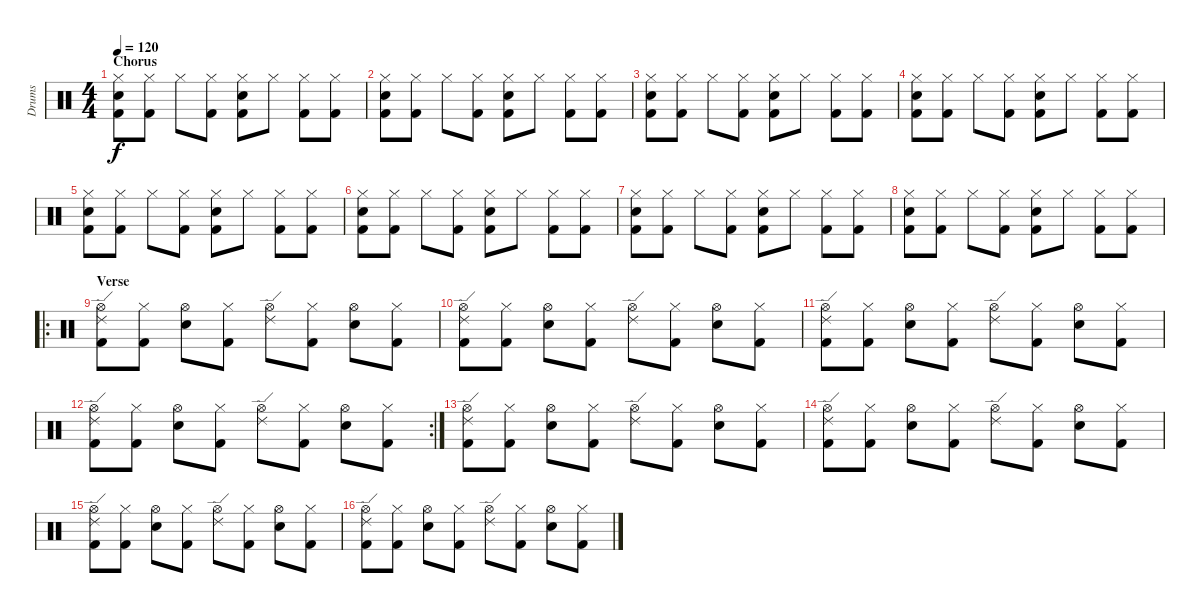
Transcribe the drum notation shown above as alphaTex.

\track ("Drums" "Drums") {instrument percussion}
\staff {score}
\articulation defaults
\ts (4 4)
\section ("" "Chorus")
\tempo 120
\clef neutral
\ks c
("Hi-Hat (closed)" "Snare (hit) 2" "Kick (hit) 2").8{dy f} ("Hi-Hat (closed)" "Kick (hit) 2").8 "Hi-Hat (closed)".8 ("Hi-Hat (closed)" "Kick (hit) 2").8 ("Hi-Hat (closed)" "Snare (hit) 2" "Kick (hit) 2").8 "Hi-Hat (closed)".8 ("Hi-Hat (closed)" "Kick (hit) 2").8 ("Hi-Hat (closed)" "Kick (hit) 2").8 |
("Hi-Hat (closed)" "Snare (hit) 2" "Kick (hit) 2").8 ("Hi-Hat (closed)" "Kick (hit) 2").8 "Hi-Hat (closed)".8 ("Hi-Hat (closed)" "Kick (hit) 2").8 ("Hi-Hat (closed)" "Snare (hit) 2" "Kick (hit) 2").8 "Hi-Hat (closed)".8 ("Hi-Hat (closed)" "Kick (hit) 2").8 ("Hi-Hat (closed)" "Kick (hit) 2").8 |
("Hi-Hat (closed)" "Snare (hit) 2" "Kick (hit) 2").8 ("Hi-Hat (closed)" "Kick (hit) 2").8 "Hi-Hat (closed)".8 ("Hi-Hat (closed)" "Kick (hit) 2").8 ("Hi-Hat (closed)" "Snare (hit) 2" "Kick (hit) 2").8 "Hi-Hat (closed)".8 ("Hi-Hat (closed)" "Kick (hit) 2").8 ("Hi-Hat (closed)" "Kick (hit) 2").8 |
("Hi-Hat (closed)" "Snare (hit) 2" "Kick (hit) 2").8 ("Hi-Hat (closed)" "Kick (hit) 2").8 "Hi-Hat (closed)".8 ("Hi-Hat (closed)" "Kick (hit) 2").8 ("Hi-Hat (closed)" "Snare (hit) 2" "Kick (hit) 2").8 "Hi-Hat (closed)".8 ("Hi-Hat (closed)" "Kick (hit) 2").8 ("Hi-Hat (closed)" "Kick (hit) 2").8 |
("Hi-Hat (closed)" "Snare (hit) 2" "Kick (hit) 2").8 ("Hi-Hat (closed)" "Kick (hit) 2").8 "Hi-Hat (closed)".8 ("Hi-Hat (closed)" "Kick (hit) 2").8 ("Hi-Hat (closed)" "Snare (hit) 2" "Kick (hit) 2").8 "Hi-Hat (closed)".8 ("Hi-Hat (closed)" "Kick (hit) 2").8 ("Hi-Hat (closed)" "Kick (hit) 2").8 |
("Hi-Hat (closed)" "Snare (hit) 2" "Kick (hit) 2").8 ("Hi-Hat (closed)" "Kick (hit) 2").8 "Hi-Hat (closed)".8 ("Hi-Hat (closed)" "Kick (hit) 2").8 ("Hi-Hat (closed)" "Snare (hit) 2" "Kick (hit) 2").8 "Hi-Hat (closed)".8 ("Hi-Hat (closed)" "Kick (hit) 2").8 ("Hi-Hat (closed)" "Kick (hit) 2").8 |
("Hi-Hat (closed)" "Snare (hit) 2" "Kick (hit) 2").8 ("Hi-Hat (closed)" "Kick (hit) 2").8 "Hi-Hat (closed)".8 ("Hi-Hat (closed)" "Kick (hit) 2").8 ("Hi-Hat (closed)" "Snare (hit) 2" "Kick (hit) 2").8 "Hi-Hat (closed)".8 ("Hi-Hat (closed)" "Kick (hit) 2").8 ("Hi-Hat (closed)" "Kick (hit) 2").8 |
("Hi-Hat (closed)" "Snare (hit) 2" "Kick (hit) 2").8 ("Hi-Hat (closed)" "Kick (hit) 2").8 "Hi-Hat (closed)".8 ("Hi-Hat (closed)" "Kick (hit) 2").8 ("Hi-Hat (closed)" "Snare (hit) 2" "Kick (hit) 2").8 "Hi-Hat (closed)".8 ("Hi-Hat (closed)" "Kick (hit) 2").8 ("Hi-Hat (closed)" "Kick (hit) 2").8 |
\ro
\section ("" "Verse")
("Hi-Hat (open)" "Ride (edge) 2" "Kick (hit) 2").8 ("Hi-Hat (closed)" "Kick (hit) 2").8 ("Hi-Hat (open)" "Snare (hit) 2").8 ("Hi-Hat (closed)" "Kick (hit) 2").8 ("Hi-Hat (open)" "Ride (edge) 2").8 ("Hi-Hat (closed)" "Kick (hit) 2").8 ("Hi-Hat (open)" "Snare (hit) 2").8 ("Hi-Hat (closed)" "Kick (hit) 2").8 |
("Hi-Hat (open)" "Ride (edge) 2" "Kick (hit) 2").8 ("Hi-Hat (closed)" "Kick (hit) 2").8 ("Hi-Hat (open)" "Snare (hit) 2").8 ("Hi-Hat (closed)" "Kick (hit) 2").8 ("Hi-Hat (open)" "Ride (edge) 2").8 ("Hi-Hat (closed)" "Kick (hit) 2").8 ("Hi-Hat (open)" "Snare (hit) 2").8 ("Hi-Hat (closed)" "Kick (hit) 2").8 |
("Hi-Hat (open)" "Ride (edge) 2" "Kick (hit) 2").8 ("Hi-Hat (closed)" "Kick (hit) 2").8 ("Hi-Hat (open)" "Snare (hit) 2").8 ("Hi-Hat (closed)" "Kick (hit) 2").8 ("Hi-Hat (open)" "Ride (edge) 2").8 ("Hi-Hat (closed)" "Kick (hit) 2").8 ("Hi-Hat (open)" "Snare (hit) 2").8 ("Hi-Hat (closed)" "Kick (hit) 2").8 |
\rc 2
("Hi-Hat (open)" "Ride (edge) 2" "Kick (hit) 2").8 ("Hi-Hat (closed)" "Kick (hit) 2").8 ("Hi-Hat (open)" "Snare (hit) 2").8 ("Hi-Hat (closed)" "Kick (hit) 2").8 ("Hi-Hat (open)" "Ride (edge) 2").8 ("Hi-Hat (closed)" "Kick (hit) 2").8 ("Hi-Hat (open)" "Snare (hit) 2").8 ("Hi-Hat (closed)" "Kick (hit) 2").8 |
("Hi-Hat (open)" "Ride (edge) 2" "Kick (hit) 2").8 ("Hi-Hat (closed)" "Kick (hit) 2").8 ("Hi-Hat (open)" "Snare (hit) 2").8 ("Hi-Hat (closed)" "Kick (hit) 2").8 ("Hi-Hat (open)" "Ride (edge) 2").8 ("Hi-Hat (closed)" "Kick (hit) 2").8 ("Hi-Hat (open)" "Snare (hit) 2").8 ("Hi-Hat (closed)" "Kick (hit) 2").8 |
("Hi-Hat (open)" "Ride (edge) 2" "Kick (hit) 2").8 ("Hi-Hat (closed)" "Kick (hit) 2").8 ("Hi-Hat (open)" "Snare (hit) 2").8 ("Hi-Hat (closed)" "Kick (hit) 2").8 ("Hi-Hat (open)" "Ride (edge) 2").8 ("Hi-Hat (closed)" "Kick (hit) 2").8 ("Hi-Hat (open)" "Snare (hit) 2").8 ("Hi-Hat (closed)" "Kick (hit) 2").8 |
("Hi-Hat (open)" "Ride (edge) 2" "Kick (hit) 2").8 ("Hi-Hat (closed)" "Kick (hit) 2").8 ("Hi-Hat (open)" "Snare (hit) 2").8 ("Hi-Hat (closed)" "Kick (hit) 2").8 ("Hi-Hat (open)" "Ride (edge) 2").8 ("Hi-Hat (closed)" "Kick (hit) 2").8 ("Hi-Hat (open)" "Snare (hit) 2").8 ("Hi-Hat (closed)" "Kick (hit) 2").8 |
("Hi-Hat (open)" "Ride (edge) 2" "Kick (hit) 2").8 ("Hi-Hat (closed)" "Kick (hit) 2").8 ("Hi-Hat (open)" "Snare (hit) 2").8 ("Hi-Hat (closed)" "Kick (hit) 2").8 ("Hi-Hat (open)" "Ride (edge) 2").8 ("Hi-Hat (closed)" "Kick (hit) 2").8 ("Hi-Hat (open)" "Snare (hit) 2").8 ("Hi-Hat (closed)" "Kick (hit) 2").8
